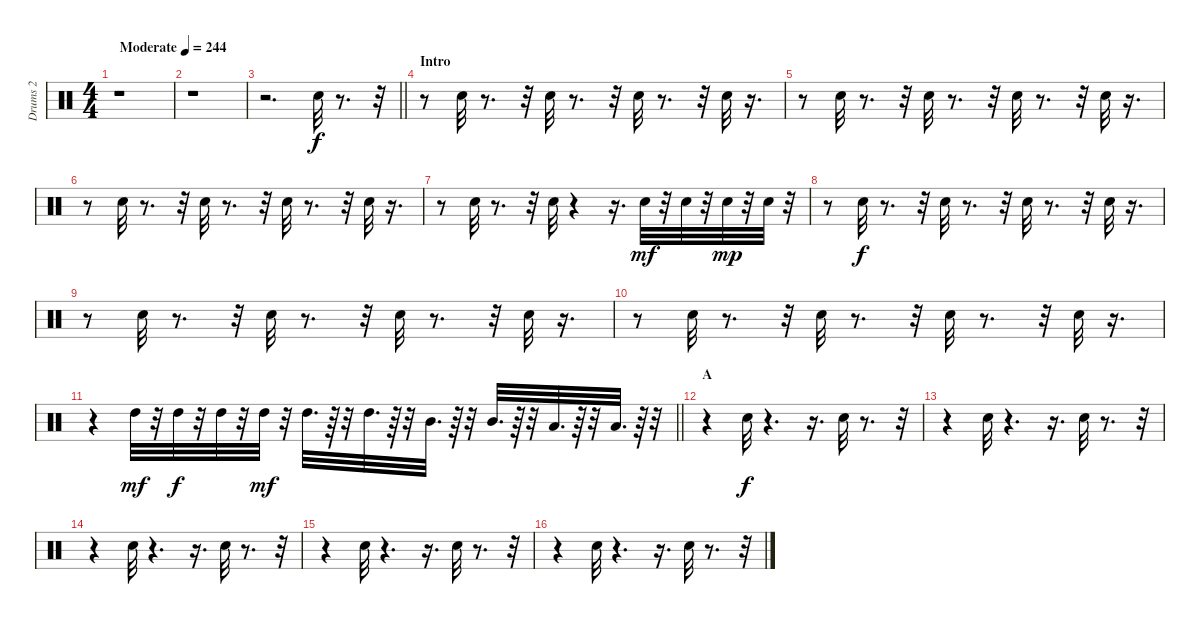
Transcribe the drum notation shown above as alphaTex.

\track ("Drums 2" "Drums 2") {instrument percussion}
\staff {score}
\articulation defaults
\ts (4 4)
\tempo (244 "Moderate")
\clef neutral
\ks c
r.1{dy f} |
r.1 |
\barLineRight lightlight
r.2{d} "Electric Snare (hit)".32 r.8{d} r.32 |
\section ("" "Intro")
r.8 "Electric Snare (hit)".32 r.8{d} r.32 "Electric Snare (hit)".32 r.8{d} r.32 "Electric Snare (hit)".32 r.8{d} r.32 "Electric Snare (hit)".32 r.16{d} |
r.8 "Electric Snare (hit)".32 r.8{d} r.32 "Electric Snare (hit)".32 r.8{d} r.32 "Electric Snare (hit)".32 r.8{d} r.32 "Electric Snare (hit)".32 r.16{d} |
r.8 "Electric Snare (hit)".32 r.8{d} r.32 "Electric Snare (hit)".32 r.8{d} r.32 "Electric Snare (hit)".32 r.8{d} r.32 "Electric Snare (hit)".32 r.16{d} |
r.8 "Electric Snare (hit)".32 r.8{d} r.32 "Electric Snare (hit)".32 r.4 r.16{d} "Electric Snare (hit)".32{dy mf} r.32 "Electric Snare (hit)".32 r.32 "Electric Snare (hit)".32{dy mp} r.32 "Electric Snare (hit)".32 r.32 |
r.8 "Electric Snare (hit)".32{dy f} r.8{d} r.32 "Electric Snare (hit)".32 r.8{d} r.32 "Electric Snare (hit)".32 r.8{d} r.32 "Electric Snare (hit)".32 r.16{d} |
r.8 "Electric Snare (hit)".32 r.8{d} r.32 "Electric Snare (hit)".32 r.8{d} r.32 "Electric Snare (hit)".32 r.8{d} r.32 "Electric Snare (hit)".32 r.16{d} |
r.8 "Electric Snare (hit)".32 r.8{d} r.32 "Electric Snare (hit)".32 r.8{d} r.32 "Electric Snare (hit)".32 r.8{d} r.32 "Electric Snare (hit)".32 r.16{d} |
\barLineRight lightlight
r.4 "High Tom (hit)".32{dy mf} r.32 "High Tom (hit)".32{dy f} r.32 "High Tom (hit)".32 r.32 "High Tom (hit)".32{dy mf} r.32 "High Tom (hit)".32{d} r.64 r.32 "High Tom (hit)".32{d} r.64 r.32 "Mid Tom (hit)".32{d} r.64 r.32 "Mid Tom (hit)".32{d} r.64 r.32 "Low Tom (hit)".32{d} r.64 r.32 "Low Tom (hit)".32{d} r.64 r.32 |
\section ("" "A")
r.4 "Electric Snare (hit)".32{dy f} r.4{d} r.16{d} "Electric Snare (hit)".32 r.8{d} r.32 |
r.4 "Electric Snare (hit)".32 r.4{d} r.16{d} "Electric Snare (hit)".32 r.8{d} r.32 |
r.4 "Electric Snare (hit)".32 r.4{d} r.16{d} "Electric Snare (hit)".32 r.8{d} r.32 |
r.4 "Electric Snare (hit)".32 r.4{d} r.16{d} "Electric Snare (hit)".32 r.8{d} r.32 |
r.4 "Electric Snare (hit)".32 r.4{d} r.16{d} "Electric Snare (hit)".32 r.8{d} r.32
